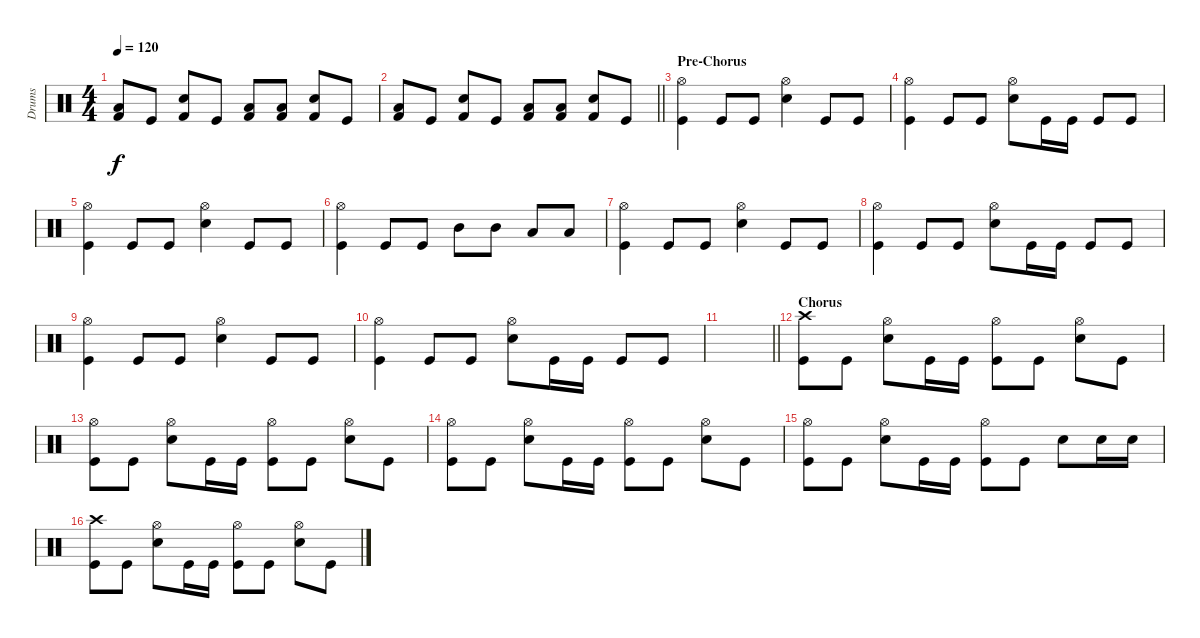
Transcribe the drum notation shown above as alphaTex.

\track ("Drums" "Drums") {instrument percussion}
\staff {score}
\articulation defaults
\ts (4 4)
\tempo 120
\clef neutral
\ks c
("Low Floor Tom (hit)" "Kick (hit) 2").8{dy f} "Kick (hit)".8 ("Electric Snare (hit)" "Kick (hit) 2").8 "Kick (hit)".8 ("Low Floor Tom (hit)" "Kick (hit) 2").8 ("Low Floor Tom (hit)" "Kick (hit) 2").8 ("Electric Snare (hit)" "Kick (hit) 2").8 "Kick (hit)".8 |
\barLineRight lightlight
("Low Floor Tom (hit)" "Kick (hit) 2").8 "Kick (hit)".8 ("Electric Snare (hit)" "Kick (hit) 2").8 "Kick (hit)".8 ("Low Floor Tom (hit)" "Kick (hit) 2").8 ("Low Floor Tom (hit)" "Kick (hit) 2").8 ("Electric Snare (hit)" "Kick (hit) 2").8 "Kick (hit)".8 |
\section ("" "Pre-Chorus")
("Hi-Hat (open)" "Kick (hit)").4 "Kick (hit)".8 "Kick (hit)".8 ("Hi-Hat (open)" "Electric Snare (hit)").4 "Kick (hit)".8 "Kick (hit)".8 |
("Hi-Hat (open)" "Kick (hit)").4 "Kick (hit)".8 "Kick (hit)".8 ("Hi-Hat (open)" "Electric Snare (hit)").8 "Kick (hit)".16 "Kick (hit)".16 "Kick (hit)".8 "Kick (hit)".8 |
("Hi-Hat (open)" "Kick (hit)").4 "Kick (hit)".8 "Kick (hit)".8 ("Hi-Hat (open)" "Electric Snare (hit)").4 "Kick (hit)".8 "Kick (hit)".8 |
("Hi-Hat (open)" "Kick (hit)").4 "Kick (hit)".8 "Kick (hit)".8 "Mid Tom (hit)".8 "Mid Tom (hit)".8 "Low Tom (hit)".8 "Low Tom (hit)".8 |
("Hi-Hat (open)" "Kick (hit)").4 "Kick (hit)".8 "Kick (hit)".8 ("Hi-Hat (open)" "Electric Snare (hit)").4 "Kick (hit)".8 "Kick (hit)".8 |
("Hi-Hat (open)" "Kick (hit)").4 "Kick (hit)".8 "Kick (hit)".8 ("Hi-Hat (open)" "Electric Snare (hit)").8 "Kick (hit)".16 "Kick (hit)".16 "Kick (hit)".8 "Kick (hit)".8 |
("Hi-Hat (open)" "Kick (hit)").4 "Kick (hit)".8 "Kick (hit)".8 ("Hi-Hat (open)" "Electric Snare (hit)").4 "Kick (hit)".8 "Kick (hit)".8 |
("Hi-Hat (open)" "Kick (hit)").4 "Kick (hit)".8 "Kick (hit)".8 ("Hi-Hat (open)" "Electric Snare (hit)").8 "Kick (hit)".16 "Kick (hit)".16 "Kick (hit)".8 "Kick (hit)".8 |
\barLineRight lightlight
|
\section ("" "Chorus")
("Crash high (hit)" "Kick (hit)").8 "Kick (hit)".8 ("Hi-Hat (open)" "Electric Snare (hit)").8 "Kick (hit)".16 "Kick (hit)".16 ("Hi-Hat (open)" "Kick (hit)").8 "Kick (hit)".8 ("Hi-Hat (open)" "Electric Snare (hit)").8 "Kick (hit)".8 |
("Hi-Hat (open)" "Kick (hit)").8 "Kick (hit)".8 ("Hi-Hat (open)" "Electric Snare (hit)").8 "Kick (hit)".16 "Kick (hit)".16 ("Hi-Hat (open)" "Kick (hit)").8 "Kick (hit)".8 ("Hi-Hat (open)" "Electric Snare (hit)").8 "Kick (hit)".8 |
("Hi-Hat (open)" "Kick (hit)").8 "Kick (hit)".8 ("Hi-Hat (open)" "Electric Snare (hit)").8 "Kick (hit)".16 "Kick (hit)".16 ("Hi-Hat (open)" "Kick (hit)").8 "Kick (hit)".8 ("Hi-Hat (open)" "Electric Snare (hit)").8 "Kick (hit)".8 |
("Hi-Hat (open)" "Kick (hit)").8 "Kick (hit)".8 ("Hi-Hat (open)" "Electric Snare (hit)").8 "Kick (hit)".16 "Kick (hit)".16 ("Hi-Hat (open)" "Kick (hit)").8 "Kick (hit)".8 "Electric Snare (hit)".8 "Electric Snare (hit)".16 "Electric Snare (hit)".16 |
("Crash high (hit)" "Kick (hit)").8 "Kick (hit)".8 ("Hi-Hat (open)" "Electric Snare (hit)").8 "Kick (hit)".16 "Kick (hit)".16 ("Hi-Hat (open)" "Kick (hit)").8 "Kick (hit)".8 ("Hi-Hat (open)" "Electric Snare (hit)").8 "Kick (hit)".8
